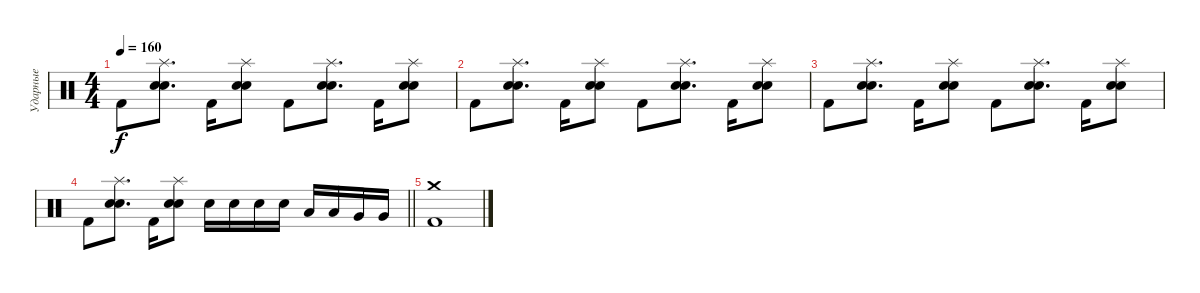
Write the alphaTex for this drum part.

\track ("Ударные" "Ударные") {instrument percussion}
\staff {score}
\articulation defaults
\ts (4 4)
\tempo 160
\clef neutral
\ks c "Kick (hit) 2".8{dy f}
("Splash (hit)" "Electric Snare (hit)" "Snare (hit) 2").8{d} "Kick (hit) 2".16 ("Splash (hit)" "Electric Snare (hit)" "Snare (hit) 2").8 "Kick (hit) 2".8 ("Splash (hit)" "Electric Snare (hit)" "Snare (hit) 2").8{d} "Kick (hit) 2".16 ("Splash (hit)" "Electric Snare (hit)" "Snare (hit) 2").8 |
"Kick (hit) 2".8 ("Splash (hit)" "Electric Snare (hit)" "Snare (hit) 2").8{d} "Kick (hit) 2".16 ("Splash (hit)" "Electric Snare (hit)" "Snare (hit) 2").8 "Kick (hit) 2".8 ("Splash (hit)" "Electric Snare (hit)" "Snare (hit) 2").8{d} "Kick (hit) 2".16 ("Splash (hit)" "Electric Snare (hit)" "Snare (hit) 2").8 |
"Kick (hit) 2".8 ("Splash (hit)" "Electric Snare (hit)" "Snare (hit) 2").8{d} "Kick (hit) 2".16 ("Splash (hit)" "Electric Snare (hit)" "Snare (hit) 2").8 "Kick (hit) 2".8 ("Splash (hit)" "Electric Snare (hit)" "Snare (hit) 2").8{d} "Kick (hit) 2".16 ("Splash (hit)" "Electric Snare (hit)" "Snare (hit) 2").8 |
\barLineRight lightlight "Kick (hit) 2".8
("Splash (hit)" "Electric Snare (hit)" "Snare (hit) 2").8{d} "Kick (hit) 2".16 ("Splash (hit)" "Electric Snare (hit)" "Snare (hit) 2").8 "Electric Snare (hit)".16 "Electric Snare (hit)".16 "Electric Snare (hit)".16 "Electric Snare (hit)".16 "Low Tom (hit)".16 "Low Tom (hit)".16 "Very Low Tom (hit)".16 "Very Low Tom (hit)".16 |
("Crash medium (hit)" "Kick (hit) 2").1
